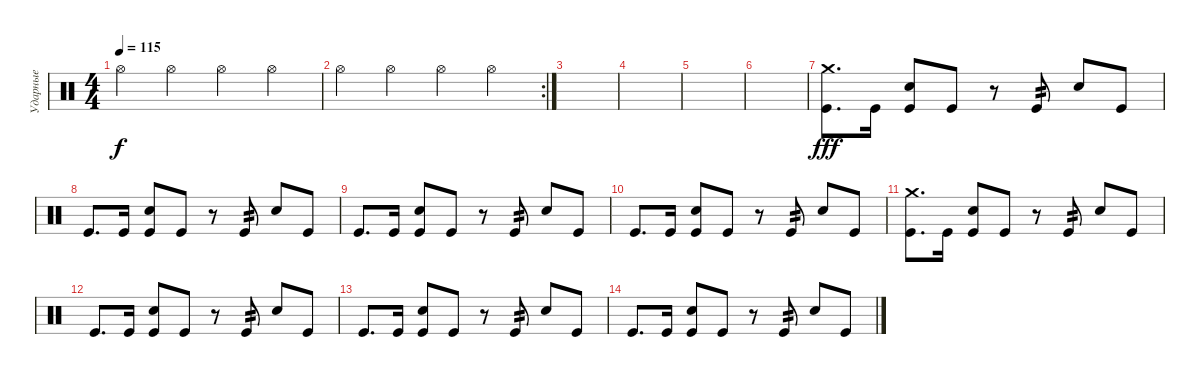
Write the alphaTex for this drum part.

\track ("Ударные" "Ударные") {instrument percussion}
\staff {score}
\articulation defaults
\ts (4 4)
\tempo 115
\clef neutral
\ks c "Hi-Hat (open)".4{dy f} "Hi-Hat (open)".4 "Hi-Hat (open)".4 "Hi-Hat (open)".4
|
\rc 2 "Hi-Hat (open)".4 "Hi-Hat (open)".4 "Hi-Hat (open)".4 "Hi-Hat (open)".4
|
|
|
|
|
("Crash medium (hit)" "Kick (hit)").8{d dy fff} "Kick (hit)".16 ("Electric Snare (hit)" "Kick (hit)").8 "Kick (hit)".8 r.8 "Kick (hit)".8{tp 2} "Electric Snare (hit)".8 "Kick (hit)".8 |
"Kick (hit)".8{d} "Kick (hit)".16 ("Electric Snare (hit)" "Kick (hit)").8 "Kick (hit)".8 r.8 "Kick (hit)".8{tp 2} "Electric Snare (hit)".8 "Kick (hit)".8 |
"Kick (hit)".8{d} "Kick (hit)".16 ("Electric Snare (hit)" "Kick (hit)").8 "Kick (hit)".8 r.8 "Kick (hit)".8{tp 2} "Electric Snare (hit)".8 "Kick (hit)".8 |
"Kick (hit)".8{d} "Kick (hit)".16 ("Electric Snare (hit)" "Kick (hit)").8 "Kick (hit)".8 r.8 "Kick (hit)".8{tp 2} "Electric Snare (hit)".8 "Kick (hit)".8 |
("Crash medium (hit)" "Kick (hit)").8{d} "Kick (hit)".16 ("Electric Snare (hit)" "Kick (hit)").8 "Kick (hit)".8 r.8 "Kick (hit)".8{tp 2} "Electric Snare (hit)".8 "Kick (hit)".8 |
"Kick (hit)".8{d} "Kick (hit)".16 ("Electric Snare (hit)" "Kick (hit)").8 "Kick (hit)".8 r.8 "Kick (hit)".8{tp 2} "Electric Snare (hit)".8 "Kick (hit)".8 |
"Kick (hit)".8{d} "Kick (hit)".16 ("Electric Snare (hit)" "Kick (hit)").8 "Kick (hit)".8 r.8 "Kick (hit)".8{tp 2} "Electric Snare (hit)".8 "Kick (hit)".8 |
"Kick (hit)".8{d} "Kick (hit)".16 ("Electric Snare (hit)" "Kick (hit)").8 "Kick (hit)".8 r.8 "Kick (hit)".8{tp 2} "Electric Snare (hit)".8 "Kick (hit)".8
